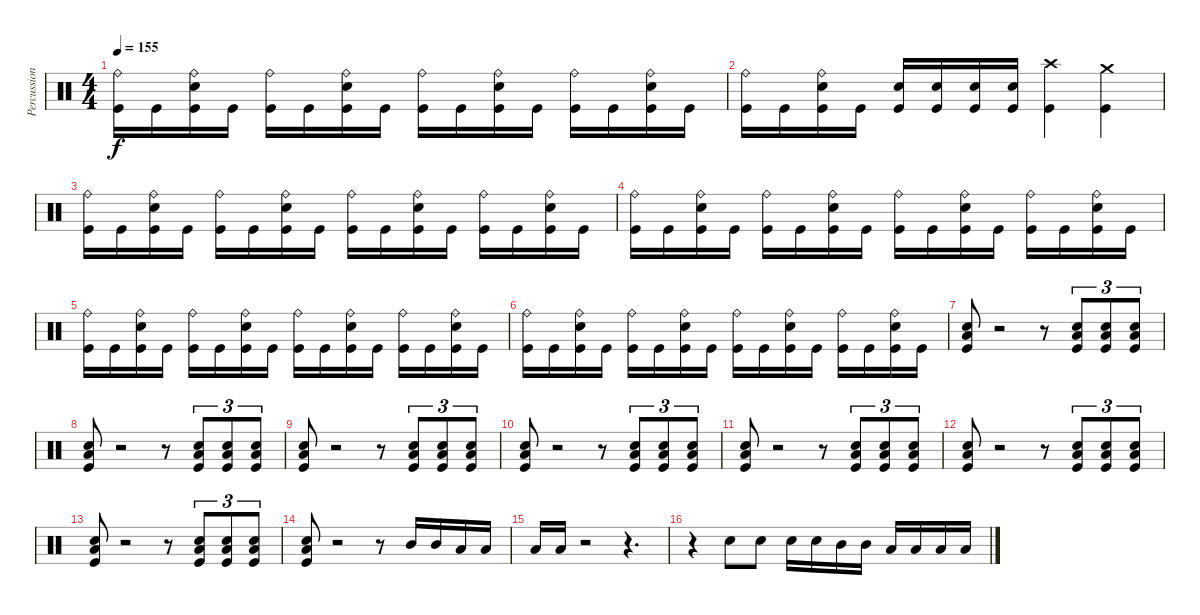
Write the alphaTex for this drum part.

\track ("Percussion" "Percussion") {instrument percussion}
\staff {score}
\articulation defaults
\ts (4 4)
\tempo 155
\clef neutral
\ks c
("Ride (bell)" "Kick (hit)").16{dy f} "Kick (hit)".16 ("Ride (bell)" "Snare (hit) 2" "Kick (hit)").16 "Kick (hit)".16 ("Ride (bell)" "Kick (hit)").16 "Kick (hit)".16 ("Ride (bell)" "Snare (hit) 2" "Kick (hit)").16 "Kick (hit)".16 ("Ride (bell)" "Kick (hit)").16 "Kick (hit)".16 ("Ride (bell)" "Snare (hit) 2" "Kick (hit)").16 "Kick (hit)".16 ("Ride (bell)" "Kick (hit)").16 "Kick (hit)".16 ("Ride (bell)" "Snare (hit) 2" "Kick (hit)").16 "Kick (hit)".16 |
("Ride (bell)" "Kick (hit)").16 "Kick (hit)".16 ("Ride (bell)" "Snare (hit) 2" "Kick (hit)").16 "Kick (hit)".16 ("Snare (hit) 2" "Kick (hit)").16 ("Snare (hit) 2" "Kick (hit)").16 ("Snare (hit) 2" "Kick (hit)").16 ("Snare (hit) 2" "Kick (hit)").16 ("Crash high (hit)" "Kick (hit)").4 ("Crash medium (hit)" "Kick (hit)").4 |
("Ride (bell)" "Kick (hit)").16 "Kick (hit)".16 ("Ride (bell)" "Snare (hit) 2" "Kick (hit)").16 "Kick (hit)".16 ("Ride (bell)" "Kick (hit)").16 "Kick (hit)".16 ("Ride (bell)" "Snare (hit) 2" "Kick (hit)").16 "Kick (hit)".16 ("Ride (bell)" "Kick (hit)").16 "Kick (hit)".16 ("Ride (bell)" "Snare (hit) 2" "Kick (hit)").16 "Kick (hit)".16 ("Ride (bell)" "Kick (hit)").16 "Kick (hit)".16 ("Ride (bell)" "Snare (hit) 2" "Kick (hit)").16 "Kick (hit)".16 |
("Ride (bell)" "Kick (hit)").16 "Kick (hit)".16 ("Ride (bell)" "Snare (hit) 2" "Kick (hit)").16 "Kick (hit)".16 ("Ride (bell)" "Kick (hit)").16 "Kick (hit)".16 ("Ride (bell)" "Snare (hit) 2" "Kick (hit)").16 "Kick (hit)".16 ("Ride (bell)" "Kick (hit)").16 "Kick (hit)".16 ("Ride (bell)" "Snare (hit) 2" "Kick (hit)").16 "Kick (hit)".16 ("Ride (bell)" "Kick (hit)").16 "Kick (hit)".16 ("Ride (bell)" "Snare (hit) 2" "Kick (hit)").16 "Kick (hit)".16 |
("Ride (bell)" "Kick (hit)").16 "Kick (hit)".16 ("Ride (bell)" "Snare (hit) 2" "Kick (hit)").16 "Kick (hit)".16 ("Ride (bell)" "Kick (hit)").16 "Kick (hit)".16 ("Ride (bell)" "Snare (hit) 2" "Kick (hit)").16 "Kick (hit)".16 ("Ride (bell)" "Kick (hit)").16 "Kick (hit)".16 ("Ride (bell)" "Snare (hit) 2" "Kick (hit)").16 "Kick (hit)".16 ("Ride (bell)" "Kick (hit)").16 "Kick (hit)".16 ("Ride (bell)" "Snare (hit) 2" "Kick (hit)").16 "Kick (hit)".16 |
("Ride (bell)" "Kick (hit)").16 "Kick (hit)".16 ("Ride (bell)" "Snare (hit) 2" "Kick (hit)").16 "Kick (hit)".16 ("Ride (bell)" "Kick (hit)").16 "Kick (hit)".16 ("Ride (bell)" "Snare (hit) 2" "Kick (hit)").16 "Kick (hit)".16 ("Ride (bell)" "Kick (hit)").16 "Kick (hit)".16 ("Ride (bell)" "Snare (hit) 2" "Kick (hit)").16 "Kick (hit)".16 ("Ride (bell)" "Kick (hit)").16 "Kick (hit)".16 ("Ride (bell)" "Snare (hit) 2" "Kick (hit)").16 "Kick (hit)".16 |
("Low Floor Tom (hit)" "Snare (hit) 2" "Kick (hit)").8 r.2 r.8 ("Low Floor Tom (hit)" "Snare (hit) 2" "Kick (hit)").8{tu (3 2)} ("Low Floor Tom (hit)" "Snare (hit) 2" "Kick (hit)").8{tu (3 2)} ("Low Floor Tom (hit)" "Snare (hit) 2" "Kick (hit)").8{tu (3 2)} |
("Low Floor Tom (hit)" "Snare (hit) 2" "Kick (hit)").8 r.2 r.8 ("Low Floor Tom (hit)" "Snare (hit) 2" "Kick (hit)").8{tu (3 2)} ("Low Floor Tom (hit)" "Snare (hit) 2" "Kick (hit)").8{tu (3 2)} ("Low Floor Tom (hit)" "Snare (hit) 2" "Kick (hit)").8{tu (3 2)} |
("Low Floor Tom (hit)" "Snare (hit) 2" "Kick (hit)").8 r.2 r.8 ("Low Floor Tom (hit)" "Snare (hit) 2" "Kick (hit)").8{tu (3 2)} ("Low Floor Tom (hit)" "Snare (hit) 2" "Kick (hit)").8{tu (3 2)} ("Low Floor Tom (hit)" "Snare (hit) 2" "Kick (hit)").8{tu (3 2)} |
("Low Floor Tom (hit)" "Snare (hit) 2" "Kick (hit)").8 r.2 r.8 ("Low Floor Tom (hit)" "Snare (hit) 2" "Kick (hit)").8{tu (3 2)} ("Low Floor Tom (hit)" "Snare (hit) 2" "Kick (hit)").8{tu (3 2)} ("Low Floor Tom (hit)" "Snare (hit) 2" "Kick (hit)").8{tu (3 2)} |
("Low Floor Tom (hit)" "Snare (hit) 2" "Kick (hit)").8 r.2 r.8 ("Low Floor Tom (hit)" "Snare (hit) 2" "Kick (hit)").8{tu (3 2)} ("Low Floor Tom (hit)" "Snare (hit) 2" "Kick (hit)").8{tu (3 2)} ("Low Floor Tom (hit)" "Snare (hit) 2" "Kick (hit)").8{tu (3 2)} |
("Low Floor Tom (hit)" "Snare (hit) 2" "Kick (hit)").8 r.2 r.8 ("Low Floor Tom (hit)" "Snare (hit) 2" "Kick (hit)").8{tu (3 2)} ("Low Floor Tom (hit)" "Snare (hit) 2" "Kick (hit)").8{tu (3 2)} ("Low Floor Tom (hit)" "Snare (hit) 2" "Kick (hit)").8{tu (3 2)} |
("Low Floor Tom (hit)" "Snare (hit) 2" "Kick (hit)").8 r.2 r.8 ("Low Floor Tom (hit)" "Snare (hit) 2" "Kick (hit)").8{tu (3 2)} ("Low Floor Tom (hit)" "Snare (hit) 2" "Kick (hit)").8{tu (3 2)} ("Low Floor Tom (hit)" "Snare (hit) 2" "Kick (hit)").8{tu (3 2)} |
("Low Floor Tom (hit)" "Snare (hit) 2" "Kick (hit)").8 r.2 r.8 "Mid Tom (hit)".16 "Mid Tom (hit)".16 "Low Tom (hit)".16 "Low Tom (hit)".16 |
"Low Floor Tom (hit)".16 "Low Floor Tom (hit)".16 r.2 r.4{d} |
r.4 "Snare (hit) 2".8 "Snare (hit) 2".8 "Snare (hit) 2".16 "Snare (hit) 2".16 "Mid Tom (hit)".16 "Mid Tom (hit)".16 "Low Tom (hit)".16 "Low Tom (hit)".16 "Low Floor Tom (hit)".16 "Low Floor Tom (hit)".16
